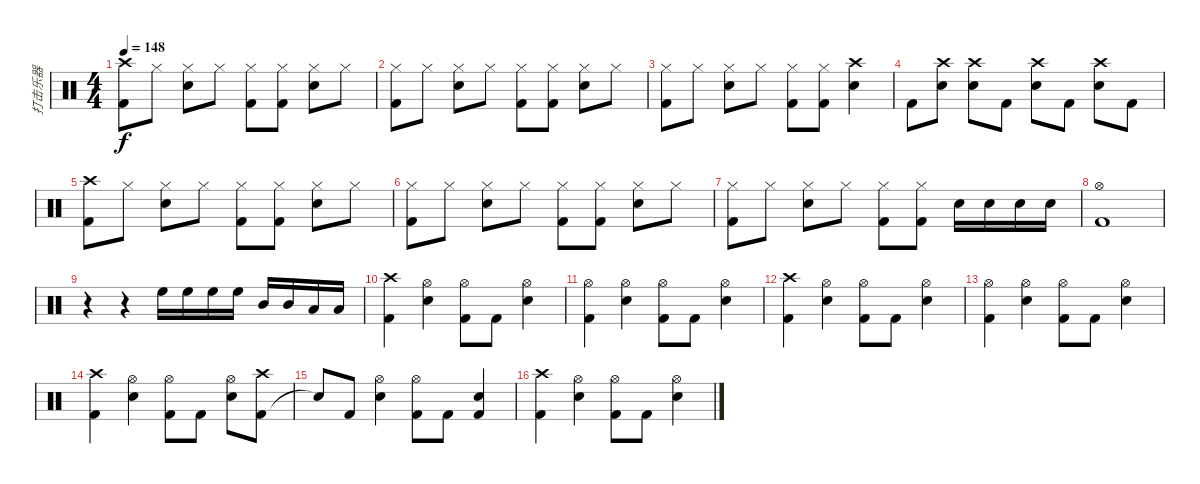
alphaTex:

\track ("打击乐器" "打击乐器") {instrument percussion}
\staff {score}
\articulation defaults
\ts (4 4)
\tempo 148
\clef neutral
\ks c
("Crash high (hit)" "Kick (hit) 2").8{dy f} "Hi-Hat (closed)".8 ("Hi-Hat (closed)" "Electric Snare (hit)").8 "Hi-Hat (closed)".8 ("Hi-Hat (closed)" "Kick (hit) 2").8 ("Hi-Hat (closed)" "Kick (hit) 2").8 ("Hi-Hat (closed)" "Electric Snare (hit)").8 "Hi-Hat (closed)".8 |
("Hi-Hat (closed)" "Kick (hit) 2").8 "Hi-Hat (closed)".8 ("Hi-Hat (closed)" "Electric Snare (hit)").8 "Hi-Hat (closed)".8 ("Hi-Hat (closed)" "Kick (hit) 2").8 ("Hi-Hat (closed)" "Kick (hit) 2").8 ("Hi-Hat (closed)" "Electric Snare (hit)").8 "Hi-Hat (closed)".8 |
("Hi-Hat (closed)" "Kick (hit) 2").8 "Hi-Hat (closed)".8 ("Hi-Hat (closed)" "Electric Snare (hit)").8 "Hi-Hat (closed)".8 ("Hi-Hat (closed)" "Kick (hit) 2").8 ("Hi-Hat (closed)" "Kick (hit) 2").8 ("Crash high (hit)" "Electric Snare (hit)").4 |
"Kick (hit) 2".8 ("Crash high (hit)" "Electric Snare (hit)").8 ("Crash high (hit)" "Electric Snare (hit)").8 "Kick (hit) 2".8 ("Crash high (hit)" "Electric Snare (hit)").8 "Kick (hit) 2".8 ("Crash high (hit)" "Electric Snare (hit)").8 "Kick (hit) 2".8 |
("Crash high (hit)" "Kick (hit) 2").8 "Hi-Hat (closed)".8 ("Hi-Hat (closed)" "Electric Snare (hit)").8 "Hi-Hat (closed)".8 ("Hi-Hat (closed)" "Kick (hit) 2").8 ("Hi-Hat (closed)" "Kick (hit) 2").8 ("Hi-Hat (closed)" "Electric Snare (hit)").8 "Hi-Hat (closed)".8 |
("Hi-Hat (closed)" "Kick (hit) 2").8 "Hi-Hat (closed)".8 ("Hi-Hat (closed)" "Electric Snare (hit)").8 "Hi-Hat (closed)".8 ("Hi-Hat (closed)" "Kick (hit) 2").8 ("Hi-Hat (closed)" "Kick (hit) 2").8 ("Hi-Hat (closed)" "Electric Snare (hit)").8 "Hi-Hat (closed)".8 |
("Hi-Hat (closed)" "Kick (hit) 2").8 "Hi-Hat (closed)".8 ("Hi-Hat (closed)" "Electric Snare (hit)").8 "Hi-Hat (closed)".8 ("Hi-Hat (closed)" "Kick (hit) 2").8 ("Hi-Hat (closed)" "Kick (hit) 2").8 "Electric Snare (hit)".16 "Electric Snare (hit)".16 "Electric Snare (hit)".16 "Electric Snare (hit)".16 |
("Kick (hit) 2" "Hi-Hat (open)").1 |
r.4 r.4 "High Floor Tom (hit)".16 "High Floor Tom (hit)".16 "High Floor Tom (hit)".16 "High Floor Tom (hit)".16 "Mid Tom (hit)".16 "Mid Tom (hit)".16 "Low Tom (hit)".16 "Low Tom (hit)".16 |
("Kick (hit) 2" "Crash high (hit)").4 ("Electric Snare (hit)" "Hi-Hat (open)").4 ("Kick (hit) 2" "Hi-Hat (open)").8 "Kick (hit) 2".8 ("Electric Snare (hit)" "Hi-Hat (open)").4 |
("Kick (hit) 2" "Hi-Hat (open)").4 ("Electric Snare (hit)" "Hi-Hat (open)").4 ("Kick (hit) 2" "Hi-Hat (open)").8 "Kick (hit) 2".8 ("Electric Snare (hit)" "Hi-Hat (open)").4 |
("Kick (hit) 2" "Crash high (hit)").4 ("Electric Snare (hit)" "Hi-Hat (open)").4 ("Kick (hit) 2" "Hi-Hat (open)").8 "Kick (hit) 2".8 ("Electric Snare (hit)" "Hi-Hat (open)").4 |
("Kick (hit) 2" "Hi-Hat (open)").4 ("Electric Snare (hit)" "Hi-Hat (open)").4 ("Kick (hit) 2" "Hi-Hat (open)").8 "Kick (hit) 2".8 ("Electric Snare (hit)" "Hi-Hat (open)").4 |
("Kick (hit) 2" "Crash high (hit)").4 ("Electric Snare (hit)" "Hi-Hat (open)").4 ("Kick (hit) 2" "Hi-Hat (open)").8 "Kick (hit) 2".8 ("Electric Snare (hit)" "Hi-Hat (open)").8 ("Kick (hit) 2" "Crash high (hit)").8 |
"Snare (hit)"{t}.8 "Kick (hit) 2".8 ("Electric Snare (hit)" "Hi-Hat (open)").4 ("Kick (hit) 2" "Hi-Hat (open)").8 "Kick (hit) 2".8 ("Electric Snare (hit)" "Kick (hit) 2").4 |
("Kick (hit) 2" "Crash high (hit)").4 ("Electric Snare (hit)" "Hi-Hat (open)").4 ("Kick (hit) 2" "Hi-Hat (open)").8 "Kick (hit) 2".8 ("Electric Snare (hit)" "Hi-Hat (open)").4
